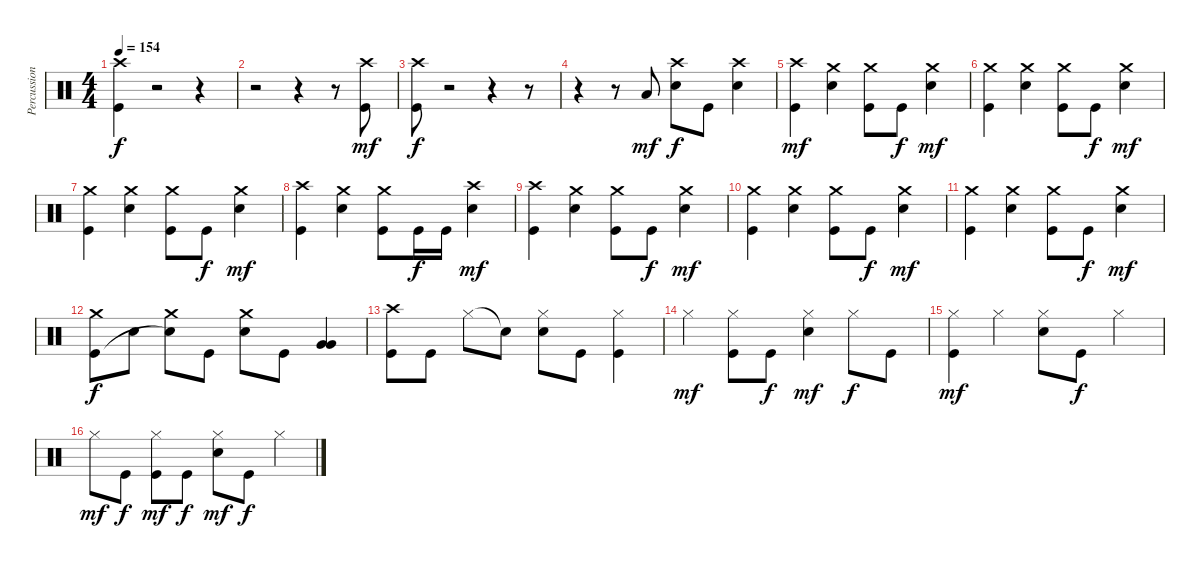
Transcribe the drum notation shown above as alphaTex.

\track ("Percussion" "Percussion") {instrument percussion}
\staff {score}
\articulation defaults
\ts (4 4)
\tempo 154
\clef neutral
\ks c
("Crash high (hit)" "Kick (hit)").4{dy f} r.2 r.4 |
r.2 r.4 r.8 ("Crash high (hit)" "Kick (hit)").8{dy mf} |
("Crash high (hit)" "Kick (hit)").8{dy f} r.2 r.4 r.8 |
r.4 r.8 "Low Tom (hit)".8{dy mf} ("Crash high (hit)" "Electric Snare (hit)").8{dy f} "Kick (hit)".8 ("Crash high (hit)" "Electric Snare (hit)").4 |
("Crash high (hit)" "Kick (hit)").4{dy mf} ("Crash medium (hit)" "Electric Snare (hit)").4 ("Crash medium (hit)" "Kick (hit)").8 "Kick (hit)".8{dy f} ("Crash medium (hit)" "Electric Snare (hit)").4{dy mf} |
("Crash medium (hit)" "Kick (hit)").4 ("Crash medium (hit)" "Electric Snare (hit)").4 ("Crash medium (hit)" "Kick (hit)").8 "Kick (hit)".8{dy f} ("Crash medium (hit)" "Electric Snare (hit)").4{dy mf} |
("Crash medium (hit)" "Kick (hit)").4 ("Crash medium (hit)" "Electric Snare (hit)").4 ("Crash medium (hit)" "Kick (hit)").8 "Kick (hit)".8{dy f} ("Crash medium (hit)" "Electric Snare (hit)").4{dy mf} |
("Crash high (hit)" "Kick (hit)").4 ("Crash medium (hit)" "Electric Snare (hit)").4 ("Crash medium (hit)" "Kick (hit)").8 "Kick (hit)".16{dy f} "Kick (hit)".16 ("Crash high (hit)" "Electric Snare (hit)").4{dy mf} |
("Crash high (hit)" "Kick (hit)").4 ("Crash medium (hit)" "Electric Snare (hit)").4 ("Crash medium (hit)" "Kick (hit)").8 "Kick (hit)".8{dy f} ("Crash medium (hit)" "Electric Snare (hit)").4{dy mf} |
("Crash medium (hit)" "Kick (hit)").4 ("Crash medium (hit)" "Electric Snare (hit)").4 ("Crash medium (hit)" "Kick (hit)").8 "Kick (hit)".8{dy f} ("Crash medium (hit)" "Electric Snare (hit)").4{dy mf} |
("Crash medium (hit)" "Kick (hit)").4 ("Crash medium (hit)" "Electric Snare (hit)").4 ("Crash medium (hit)" "Kick (hit)").8 "Kick (hit)".8{dy f} ("Crash medium (hit)" "Electric Snare (hit)").4{dy mf} |
("Crash medium (hit)" "Kick (hit)").8{dy f} "Electric Snare (hit)".8 ("Crash medium (hit)" "Snare (hit)"{t}).8 "Kick (hit)".8 ("Crash medium (hit)" "Electric Snare (hit)").8 "Kick (hit)".8 ("Very Low Tom (hit)" "Very Low Tom (hit)").4 |
("Crash high (hit)" "Kick (hit)").8 "Kick (hit)".8 "Hi-Hat (closed)".8 "Snare (hit)"{t}.8 ("Hi-Hat (closed)" "Electric Snare (hit)").8 "Kick (hit)".8 ("Hi-Hat (closed)" "Kick (hit)").4 |
"Hi-Hat (closed)".4{dy mf} ("Hi-Hat (closed)" "Kick (hit)").8 "Kick (hit)".8{dy f} ("Hi-Hat (closed)" "Electric Snare (hit)").4{dy mf} "Hi-Hat (closed)".8{dy f} "Kick (hit)".8 |
("Hi-Hat (closed)" "Kick (hit)").4{dy mf} "Hi-Hat (closed)".4 ("Hi-Hat (closed)" "Electric Snare (hit)").8 "Kick (hit)".8{dy f} "Hi-Hat (closed)".4 |
"Hi-Hat (closed)".8{dy mf} "Kick (hit)".8{dy f} ("Hi-Hat (closed)" "Kick (hit)").8{dy mf} "Kick (hit)".8{dy f} ("Hi-Hat (closed)" "Electric Snare (hit)").8{dy mf} "Kick (hit)".8{dy f} "Hi-Hat (closed)".4
